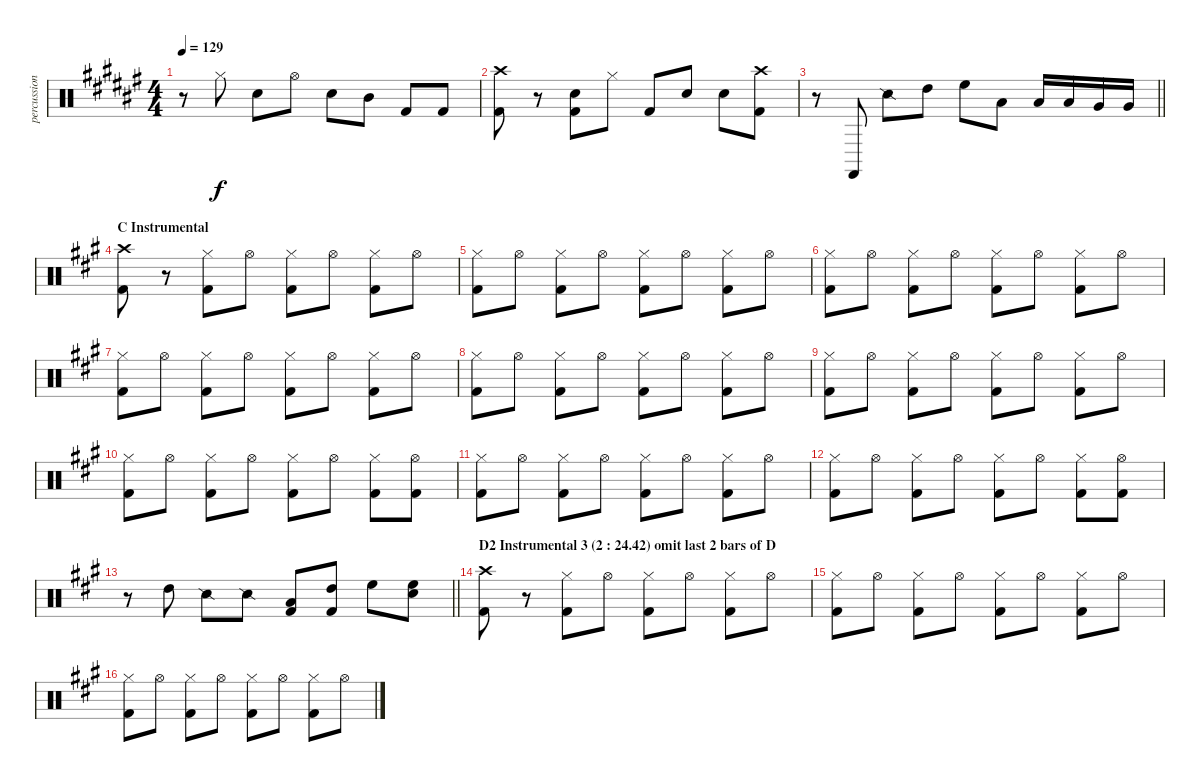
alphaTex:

\track ("percussion" "percussion") {instrument percussion}
\staff {score}
\articulation defaults
\ts (4 4)
\tempo 129
\clef neutral
\ks f#
r.8{dy f} "Hi-Hat (closed)".8 "Snare (hit) 2".8 "Hi-Hat (open)".8 "Snare (hit) 2".8 "Mid Tom (hit)".8 "Kick (hit) 2".8 "Kick (hit) 2".8 |
("Crash high (hit)" "Kick (hit) 2").8 r.8 ("Snare (hit) 2" "Kick (hit) 2").8 "Hi-Hat (closed)".8 "Kick (hit) 2".8 "Snare (hit) 2".8 "Snare (hit) 2".8 ("Crash high (hit)" "Kick (hit) 2").8 |
\barLineRight lightlight
r.8 "Castanets (hit)".8 "Snare (side stick) 2".8 "High Tom (hit)".8 "High Floor Tom (hit)".8 "Low Tom (hit)".8 "Low Tom (hit)".16 "Low Tom (hit)".16 "Very Low Tom (hit)".16 "Very Low Tom (hit)".16 |
\section ("" "C Instrumental")
\ks a
("Crash high (hit)" "Kick (hit) 2").8 r.8 ("Hi-Hat (closed)" "Kick (hit) 2").8 "Hi-Hat (open)".8 ("Hi-Hat (closed)" "Kick (hit) 2").8 "Hi-Hat (open)".8 ("Hi-Hat (closed)" "Kick (hit) 2").8 "Hi-Hat (open)".8 |
("Hi-Hat (closed)" "Kick (hit) 2").8 "Hi-Hat (open)".8 ("Hi-Hat (closed)" "Kick (hit) 2").8 "Hi-Hat (open)".8 ("Hi-Hat (closed)" "Kick (hit) 2").8 "Hi-Hat (open)".8 ("Hi-Hat (closed)" "Kick (hit) 2").8 "Hi-Hat (open)".8 |
("Hi-Hat (closed)" "Kick (hit) 2").8 "Hi-Hat (open)".8 ("Hi-Hat (closed)" "Kick (hit) 2").8 "Hi-Hat (open)".8 ("Hi-Hat (closed)" "Kick (hit) 2").8 "Hi-Hat (open)".8 ("Hi-Hat (closed)" "Kick (hit) 2").8 "Hi-Hat (open)".8 |
("Hi-Hat (closed)" "Kick (hit) 2").8 "Hi-Hat (open)".8 ("Hi-Hat (closed)" "Kick (hit) 2").8 "Hi-Hat (open)".8 ("Hi-Hat (closed)" "Kick (hit) 2").8 "Hi-Hat (open)".8 ("Hi-Hat (closed)" "Kick (hit) 2").8 "Hi-Hat (open)".8 |
("Hi-Hat (closed)" "Kick (hit) 2").8 "Hi-Hat (open)".8 ("Hi-Hat (closed)" "Kick (hit) 2").8 "Hi-Hat (open)".8 ("Hi-Hat (closed)" "Kick (hit) 2").8 "Hi-Hat (open)".8 ("Hi-Hat (closed)" "Kick (hit) 2").8 "Hi-Hat (open)".8 |
("Hi-Hat (closed)" "Kick (hit) 2").8 "Hi-Hat (open)".8 ("Hi-Hat (closed)" "Kick (hit) 2").8 "Hi-Hat (open)".8 ("Hi-Hat (closed)" "Kick (hit) 2").8 "Hi-Hat (open)".8 ("Hi-Hat (closed)" "Kick (hit) 2").8 "Hi-Hat (open)".8 |
("Hi-Hat (closed)" "Kick (hit) 2").8 "Hi-Hat (open)".8 ("Hi-Hat (closed)" "Kick (hit) 2").8 "Hi-Hat (open)".8 ("Hi-Hat (closed)" "Kick (hit) 2").8 "Hi-Hat (open)".8 ("Hi-Hat (closed)" "Kick (hit) 2").8 ("Hi-Hat (open)" "Kick (hit) 2").8 |
("Hi-Hat (closed)" "Kick (hit) 2").8 "Hi-Hat (open)".8 ("Hi-Hat (closed)" "Kick (hit) 2").8 "Hi-Hat (open)".8 ("Hi-Hat (closed)" "Kick (hit) 2").8 "Hi-Hat (open)".8 ("Hi-Hat (closed)" "Kick (hit) 2").8 "Hi-Hat (open)".8 |
("Hi-Hat (closed)" "Kick (hit) 2").8 "Hi-Hat (open)".8 ("Hi-Hat (closed)" "Kick (hit) 2").8 "Hi-Hat (open)".8 ("Hi-Hat (closed)" "Kick (hit) 2").8 "Hi-Hat (open)".8 ("Hi-Hat (closed)" "Kick (hit) 2").8 ("Hi-Hat (open)" "Kick (hit) 2").8 |
\barLineRight lightlight
r.8 "High Tom (hit)".8 "Snare (side stick) 2".8 "Snare (side stick) 2".8 ("Low Tom (hit)" "Kick (hit) 2").8 ("High Tom (hit)" "Kick (hit) 2").8 "High Floor Tom (hit)".8 ("High Floor Tom (hit)" "Snare (hit) 2").8 |
\section ("" "D2 Instrumental 3 (2 : 24.42) omit last 2 bars of D")
("Crash high (hit)" "Kick (hit) 2").8 r.8 ("Hi-Hat (closed)" "Kick (hit) 2").8 "Hi-Hat (open)".8 ("Hi-Hat (closed)" "Kick (hit) 2").8 "Hi-Hat (open)".8 ("Hi-Hat (closed)" "Kick (hit) 2").8 "Hi-Hat (open)".8 |
("Hi-Hat (closed)" "Kick (hit) 2").8 "Hi-Hat (open)".8 ("Hi-Hat (closed)" "Kick (hit) 2").8 "Hi-Hat (open)".8 ("Hi-Hat (closed)" "Kick (hit) 2").8 "Hi-Hat (open)".8 ("Hi-Hat (closed)" "Kick (hit) 2").8 "Hi-Hat (open)".8 |
("Hi-Hat (closed)" "Kick (hit) 2").8 "Hi-Hat (open)".8 ("Hi-Hat (closed)" "Kick (hit) 2").8 "Hi-Hat (open)".8 ("Hi-Hat (closed)" "Kick (hit) 2").8 "Hi-Hat (open)".8 ("Hi-Hat (closed)" "Kick (hit) 2").8 "Hi-Hat (open)".8
